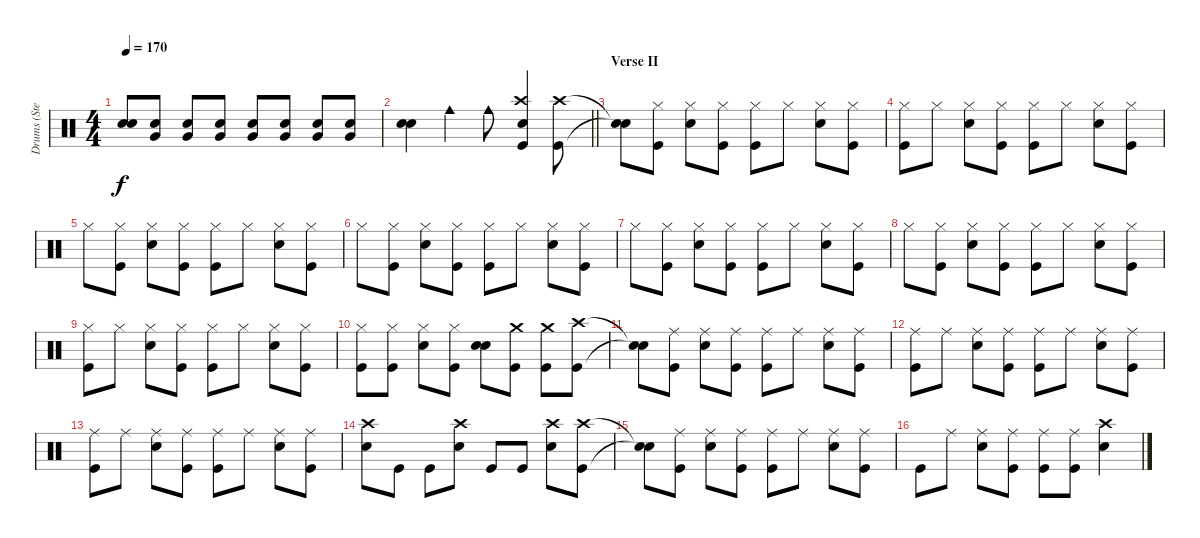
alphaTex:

\track ("Drums (Steven)" "Drums (Ste") {instrument percussion}
\staff {score}
\articulation defaults
\ts (4 4)
\tempo 170
\clef neutral
\ks c
("Snare (hit) 2" "Snare (hit) 2").8{dy f} ("Snare (hit) 2" "Very Low Tom (hit)").8 ("Snare (hit) 2" "Very Low Tom (hit)").8 ("Snare (hit) 2" "Very Low Tom (hit)").8 ("Snare (hit) 2" "Very Low Tom (hit)").8 ("Snare (hit) 2" "Very Low Tom (hit)").8 ("Snare (hit) 2" "Very Low Tom (hit)").8 ("Snare (hit) 2" "Very Low Tom (hit)").8 |
\barLineRight lightlight
("Snare (hit) 2" "Snare (hit) 2").4 "Cowbell medium (hit)".4 "Cowbell medium (hit)".8 ("Crash high (hit)" "Kick (hit)" "Snare (hit)").4 ("Crash high (hit)" "Kick (hit)").8 |
\section ("" "Verse II")
("Snare (hit)"{t} "Snare (hit)"{t}).8 ("Hi-Hat (closed)" "Kick (hit)").8 ("Hi-Hat (closed)" "Snare (hit) 2").8 ("Hi-Hat (closed)" "Kick (hit)").8 ("Hi-Hat (closed)" "Kick (hit)").8 "Hi-Hat (closed)".8 ("Hi-Hat (closed)" "Snare (hit) 2").8 ("Hi-Hat (closed)" "Kick (hit)").8 |
("Hi-Hat (closed)" "Kick (hit)").8 "Hi-Hat (closed)".8 ("Hi-Hat (closed)" "Snare (hit) 2").8 ("Hi-Hat (closed)" "Kick (hit)").8 ("Hi-Hat (closed)" "Kick (hit)").8 "Hi-Hat (closed)".8 ("Hi-Hat (closed)" "Snare (hit) 2").8 ("Hi-Hat (closed)" "Kick (hit)").8 |
"Hi-Hat (closed)".8 ("Hi-Hat (closed)" "Kick (hit)").8 ("Hi-Hat (closed)" "Snare (hit) 2").8 ("Hi-Hat (closed)" "Kick (hit)").8 ("Hi-Hat (closed)" "Kick (hit)").8 "Hi-Hat (closed)".8 ("Hi-Hat (closed)" "Snare (hit) 2").8 ("Hi-Hat (closed)" "Kick (hit)").8 |
"Hi-Hat (closed)".8 ("Hi-Hat (closed)" "Kick (hit)").8 ("Hi-Hat (closed)" "Snare (hit) 2").8 ("Hi-Hat (closed)" "Kick (hit)").8 ("Hi-Hat (closed)" "Kick (hit)").8 "Hi-Hat (closed)".8 ("Hi-Hat (closed)" "Snare (hit) 2").8 ("Hi-Hat (closed)" "Kick (hit)").8 |
"Hi-Hat (closed)".8 ("Hi-Hat (closed)" "Kick (hit)").8 ("Hi-Hat (closed)" "Snare (hit) 2").8 ("Hi-Hat (closed)" "Kick (hit)").8 ("Hi-Hat (closed)" "Kick (hit)").8 "Hi-Hat (closed)".8 ("Hi-Hat (closed)" "Snare (hit) 2").8 ("Hi-Hat (closed)" "Kick (hit)").8 |
"Hi-Hat (closed)".8 ("Hi-Hat (closed)" "Kick (hit)").8 ("Hi-Hat (closed)" "Snare (hit) 2").8 ("Hi-Hat (closed)" "Kick (hit)").8 ("Hi-Hat (closed)" "Kick (hit)").8 "Hi-Hat (closed)".8 ("Hi-Hat (closed)" "Snare (hit) 2").8 ("Hi-Hat (closed)" "Kick (hit)").8 |
("Hi-Hat (closed)" "Kick (hit)").8 "Hi-Hat (closed)".8 ("Hi-Hat (closed)" "Snare (hit) 2").8 ("Hi-Hat (closed)" "Kick (hit)").8 ("Hi-Hat (closed)" "Kick (hit)").8 "Hi-Hat (closed)".8 ("Hi-Hat (closed)" "Snare (hit) 2").8 ("Hi-Hat (closed)" "Kick (hit)").8 |
("Hi-Hat (closed)" "Kick (hit)").8 ("Hi-Hat (closed)" "Kick (hit)").8 ("Hi-Hat (closed)" "Snare (hit) 2").8 ("Hi-Hat (closed)" "Kick (hit)").8 ("Snare (hit) 2" "Snare (hit) 2").8 ("Crash medium (hit)" "Kick (hit)").8 ("Crash medium (hit)" "Kick (hit)").8 ("Crash high (hit)" "Kick (hit)").8 |
("Snare (hit)"{t} "Snare (hit)"{t}).8 ("Ride (middle)" "Kick (hit)").8 ("Ride (middle)" "Snare (hit) 2").8 ("Ride (middle)" "Kick (hit)").8 ("Ride (middle)" "Kick (hit)").8 "Ride (middle)".8 ("Ride (middle)" "Snare (hit) 2").8 ("Ride (middle)" "Kick (hit)").8 |
("Ride (middle)" "Kick (hit)").8 "Ride (middle)".8 ("Ride (middle)" "Snare (hit) 2").8 ("Ride (middle)" "Kick (hit)").8 ("Ride (middle)" "Kick (hit)").8 "Ride (middle)".8 ("Ride (middle)" "Snare (hit) 2").8 ("Ride (middle)" "Kick (hit)").8 |
("Ride (middle)" "Kick (hit)").8 "Ride (middle)".8 ("Ride (middle)" "Snare (hit) 2").8 ("Ride (middle)" "Kick (hit)").8 ("Ride (middle)" "Kick (hit)").8 "Ride (middle)".8 ("Ride (middle)" "Snare (hit) 2").8 ("Ride (middle)" "Kick (hit)").8 |
("Crash high (hit)" "Snare (hit) 2").8 "Kick (hit)".8 "Kick (hit)".8 ("Crash high (hit)" "Snare (hit) 2").8 "Kick (hit)".8 "Kick (hit)".8 ("Crash high (hit)" "Snare (hit) 2").8 ("Crash high (hit)" "Kick (hit)").8 |
("Snare (hit)"{t} "Snare (hit)"{t}).8 ("Ride (middle)" "Kick (hit)").8 ("Ride (middle)" "Snare (hit) 2").8 ("Ride (middle)" "Kick (hit)").8 ("Ride (middle)" "Kick (hit)").8 "Ride (middle)".8 ("Ride (middle)" "Snare (hit) 2").8 ("Ride (middle)" "Kick (hit)").8 |
"Kick (hit)".8 "Ride (middle)".8 ("Ride (middle)" "Snare (hit) 2").8 ("Ride (middle)" "Kick (hit)").8 ("Ride (middle)" "Kick (hit)").8 ("Ride (middle)" "Kick (hit)").8 ("Crash high (hit)" "Snare (hit) 2").4
